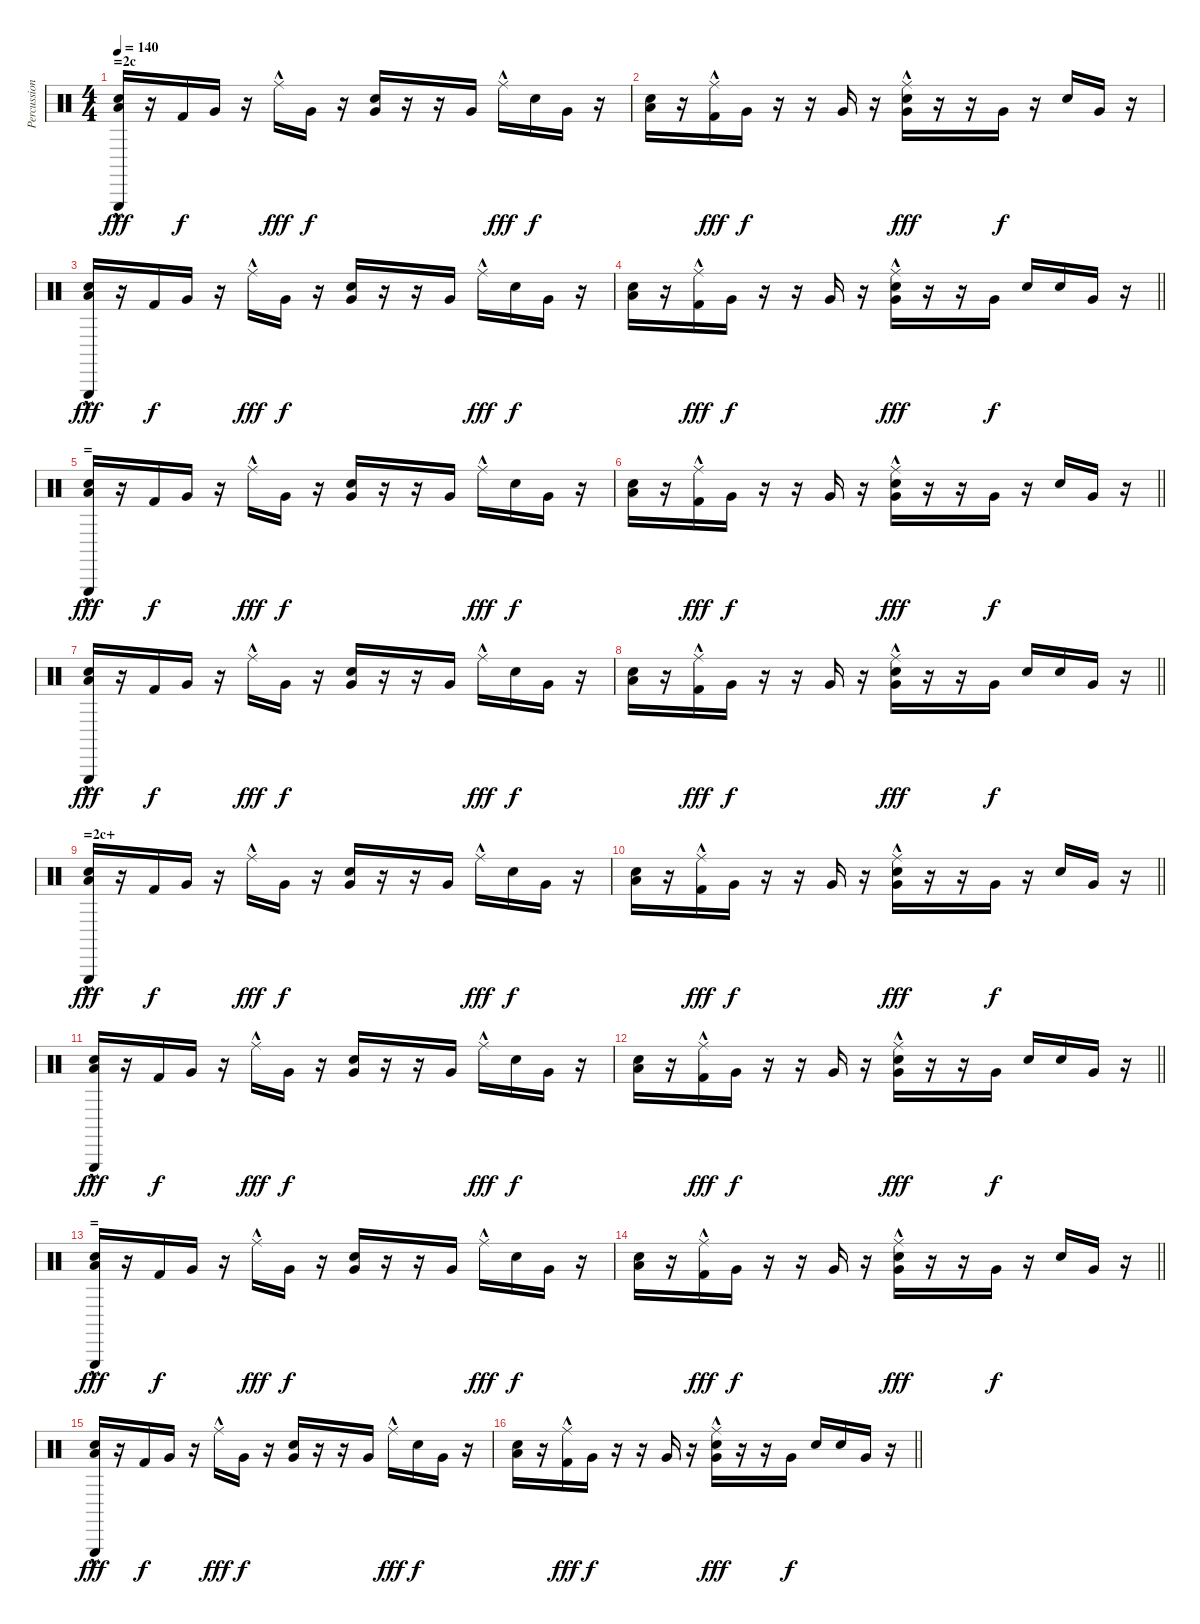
\track ("Percussion" "Percussion") {instrument percussion}
\staff {score}
\articulation defaults
\ts (4 4)
\section ("" "=2c")
\tempo 140
\clef neutral
\ks c
("Low Floor Tom (hit)" "Electric Snare (hit)" "Triangle (hit)"{hac}).16{dy fff} r.16 "Kick (hit) 2".16{dy f} "Very Low Tom (hit)".16 r.16 "Ride (middle)"{hac}.16{dy fff} "Very Low Tom (hit)".16{dy f} r.16 ("Very Low Tom (hit)" "Electric Snare (hit)").16 r.16 r.16 "Very Low Tom (hit)".16 "Ride (middle)"{hac}.16{dy fff} "Electric Snare (hit)".16{dy f} "Very Low Tom (hit)".16 r.16 |
("Low Floor Tom (hit)" "Electric Snare (hit)").16 r.16 ("Kick (hit) 2" "Ride (middle)"{hac}).16{dy fff} "Very Low Tom (hit)".16{dy f} r.16 r.16 "Very Low Tom (hit)".16 r.16 ("Very Low Tom (hit)" "Electric Snare (hit)" "Ride (middle)"{hac}).16{dy fff} r.16 r.16 "Very Low Tom (hit)".16{dy f} r.16 "Electric Snare (hit)".16 "Very Low Tom (hit)".16 r.16 |
("Low Floor Tom (hit)" "Electric Snare (hit)" "Triangle (hit)"{hac}).16{dy fff} r.16 "Kick (hit) 2".16{dy f} "Very Low Tom (hit)".16 r.16 "Ride (middle)"{hac}.16{dy fff} "Very Low Tom (hit)".16{dy f} r.16 ("Very Low Tom (hit)" "Electric Snare (hit)").16 r.16 r.16 "Very Low Tom (hit)".16 "Ride (middle)"{hac}.16{dy fff} "Electric Snare (hit)".16{dy f} "Very Low Tom (hit)".16 r.16 |
\barLineRight lightlight
("Low Floor Tom (hit)" "Electric Snare (hit)").16 r.16 ("Kick (hit) 2" "Ride (middle)"{hac}).16{dy fff} "Very Low Tom (hit)".16{dy f} r.16 r.16 "Very Low Tom (hit)".16 r.16 ("Very Low Tom (hit)" "Electric Snare (hit)" "Ride (middle)"{hac}).16{dy fff} r.16 r.16 "Very Low Tom (hit)".16{dy f} "Electric Snare (hit)".16 "Electric Snare (hit)".16 "Very Low Tom (hit)".16 r.16 |
\section ("" "=")
("Low Floor Tom (hit)" "Electric Snare (hit)" "Triangle (hit)"{hac}).16{dy fff} r.16 "Kick (hit) 2".16{dy f} "Very Low Tom (hit)".16 r.16 "Ride (middle)"{hac}.16{dy fff} "Very Low Tom (hit)".16{dy f} r.16 ("Very Low Tom (hit)" "Electric Snare (hit)").16 r.16 r.16 "Very Low Tom (hit)".16 "Ride (middle)"{hac}.16{dy fff} "Electric Snare (hit)".16{dy f} "Very Low Tom (hit)".16 r.16 |
\barLineRight lightlight
("Low Floor Tom (hit)" "Electric Snare (hit)").16 r.16 ("Kick (hit) 2" "Ride (middle)"{hac}).16{dy fff} "Very Low Tom (hit)".16{dy f} r.16 r.16 "Very Low Tom (hit)".16 r.16 ("Very Low Tom (hit)" "Electric Snare (hit)" "Ride (middle)"{hac}).16{dy fff} r.16 r.16 "Very Low Tom (hit)".16{dy f} r.16 "Electric Snare (hit)".16 "Very Low Tom (hit)".16 r.16 |
("Low Floor Tom (hit)" "Electric Snare (hit)" "Triangle (hit)"{hac}).16{dy fff} r.16 "Kick (hit) 2".16{dy f} "Very Low Tom (hit)".16 r.16 "Ride (middle)"{hac}.16{dy fff} "Very Low Tom (hit)".16{dy f} r.16 ("Very Low Tom (hit)" "Electric Snare (hit)").16 r.16 r.16 "Very Low Tom (hit)".16 "Ride (middle)"{hac}.16{dy fff} "Electric Snare (hit)".16{dy f} "Very Low Tom (hit)".16 r.16 |
\barLineRight lightlight
("Low Floor Tom (hit)" "Electric Snare (hit)").16 r.16 ("Kick (hit) 2" "Ride (middle)"{hac}).16{dy fff} "Very Low Tom (hit)".16{dy f} r.16 r.16 "Very Low Tom (hit)".16 r.16 ("Very Low Tom (hit)" "Electric Snare (hit)" "Ride (middle)"{hac}).16{dy fff} r.16 r.16 "Very Low Tom (hit)".16{dy f} "Electric Snare (hit)".16 "Electric Snare (hit)".16 "Very Low Tom (hit)".16 r.16 |
\section ("" "=2c+")
("Low Floor Tom (hit)" "Electric Snare (hit)" "Triangle (hit)"{hac}).16{dy fff} r.16 "Kick (hit) 2".16{dy f} "Very Low Tom (hit)".16 r.16 "Ride (middle)"{hac}.16{dy fff} "Very Low Tom (hit)".16{dy f} r.16 ("Very Low Tom (hit)" "Electric Snare (hit)").16 r.16 r.16 "Very Low Tom (hit)".16 "Ride (middle)"{hac}.16{dy fff} "Electric Snare (hit)".16{dy f} "Very Low Tom (hit)".16 r.16 |
\barLineRight lightlight
("Low Floor Tom (hit)" "Electric Snare (hit)").16 r.16 ("Kick (hit) 2" "Ride (middle)"{hac}).16{dy fff} "Very Low Tom (hit)".16{dy f} r.16 r.16 "Very Low Tom (hit)".16 r.16 ("Very Low Tom (hit)" "Electric Snare (hit)" "Ride (middle)"{hac}).16{dy fff} r.16 r.16 "Very Low Tom (hit)".16{dy f} r.16 "Electric Snare (hit)".16 "Very Low Tom (hit)".16 r.16 |
("Low Floor Tom (hit)" "Electric Snare (hit)" "Triangle (hit)"{hac}).16{dy fff} r.16 "Kick (hit) 2".16{dy f} "Very Low Tom (hit)".16 r.16 "Ride (middle)"{hac}.16{dy fff} "Very Low Tom (hit)".16{dy f} r.16 ("Very Low Tom (hit)" "Electric Snare (hit)").16 r.16 r.16 "Very Low Tom (hit)".16 "Ride (middle)"{hac}.16{dy fff} "Electric Snare (hit)".16{dy f} "Very Low Tom (hit)".16 r.16 |
\barLineRight lightlight
("Low Floor Tom (hit)" "Electric Snare (hit)").16 r.16 ("Kick (hit) 2" "Ride (middle)"{hac}).16{dy fff} "Very Low Tom (hit)".16{dy f} r.16 r.16 "Very Low Tom (hit)".16 r.16 ("Very Low Tom (hit)" "Electric Snare (hit)" "Ride (middle)"{hac}).16{dy fff} r.16 r.16 "Very Low Tom (hit)".16{dy f} "Electric Snare (hit)".16 "Electric Snare (hit)".16 "Very Low Tom (hit)".16 r.16 |
\section ("" "=")
("Low Floor Tom (hit)" "Electric Snare (hit)" "Triangle (hit)"{hac}).16{dy fff} r.16 "Kick (hit) 2".16{dy f} "Very Low Tom (hit)".16 r.16 "Ride (middle)"{hac}.16{dy fff} "Very Low Tom (hit)".16{dy f} r.16 ("Very Low Tom (hit)" "Electric Snare (hit)").16 r.16 r.16 "Very Low Tom (hit)".16 "Ride (middle)"{hac}.16{dy fff} "Electric Snare (hit)".16{dy f} "Very Low Tom (hit)".16 r.16 |
\barLineRight lightlight
("Low Floor Tom (hit)" "Electric Snare (hit)").16 r.16 ("Kick (hit) 2" "Ride (middle)"{hac}).16{dy fff} "Very Low Tom (hit)".16{dy f} r.16 r.16 "Very Low Tom (hit)".16 r.16 ("Very Low Tom (hit)" "Electric Snare (hit)" "Ride (middle)"{hac}).16{dy fff} r.16 r.16 "Very Low Tom (hit)".16{dy f} r.16 "Electric Snare (hit)".16 "Very Low Tom (hit)".16 r.16 |
("Low Floor Tom (hit)" "Electric Snare (hit)" "Triangle (hit)"{hac}).16{dy fff} r.16 "Kick (hit) 2".16{dy f} "Very Low Tom (hit)".16 r.16 "Ride (middle)"{hac}.16{dy fff} "Very Low Tom (hit)".16{dy f} r.16 ("Very Low Tom (hit)" "Electric Snare (hit)").16 r.16 r.16 "Very Low Tom (hit)".16 "Ride (middle)"{hac}.16{dy fff} "Electric Snare (hit)".16{dy f} "Very Low Tom (hit)".16 r.16 |
\barLineRight lightlight
("Low Floor Tom (hit)" "Electric Snare (hit)").16 r.16 ("Kick (hit) 2" "Ride (middle)"{hac}).16{dy fff} "Very Low Tom (hit)".16{dy f} r.16 r.16 "Very Low Tom (hit)".16 r.16 ("Very Low Tom (hit)" "Electric Snare (hit)" "Ride (middle)"{hac}).16{dy fff} r.16 r.16 "Very Low Tom (hit)".16{dy f} "Electric Snare (hit)".16 "Electric Snare (hit)".16 "Very Low Tom (hit)".16 r.16
